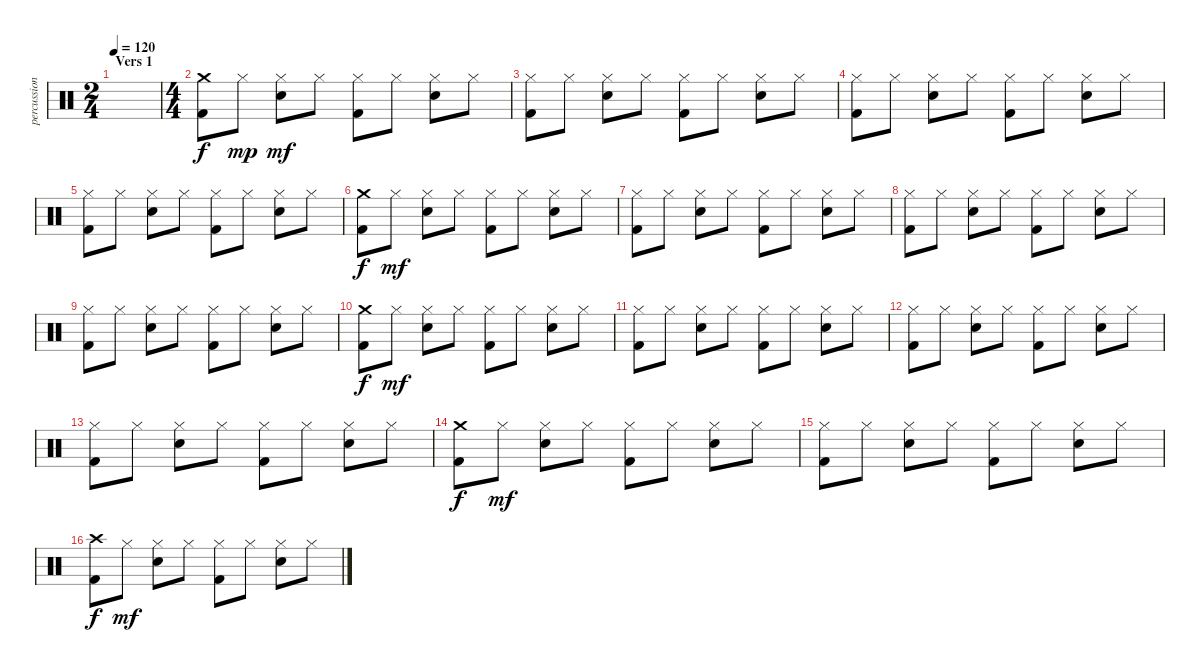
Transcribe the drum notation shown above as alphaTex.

\track ("percussion" "percussion") {instrument percussion}
\staff {score}
\articulation defaults
\ts (2 4)
\section ("" "Vers 1")
\tempo 120
\clef neutral
\ks c
|
\ts (4 4)
("Crash medium (hit)" "Kick (hit) 2").8 "Hi-Hat (closed)".8{dy mp} ("Hi-Hat (closed)" "Electric Snare (hit)").8{dy mf} "Hi-Hat (closed)".8 ("Hi-Hat (closed)" "Kick (hit) 2").8 "Hi-Hat (closed)".8 ("Hi-Hat (closed)" "Electric Snare (hit)").8 "Hi-Hat (closed)".8 |
("Hi-Hat (closed)" "Kick (hit) 2").8 "Hi-Hat (closed)".8 ("Hi-Hat (closed)" "Electric Snare (hit)").8 "Hi-Hat (closed)".8 ("Hi-Hat (closed)" "Kick (hit) 2").8 "Hi-Hat (closed)".8 ("Hi-Hat (closed)" "Electric Snare (hit)").8 "Hi-Hat (closed)".8 |
("Hi-Hat (closed)" "Kick (hit) 2").8 "Hi-Hat (closed)".8 ("Hi-Hat (closed)" "Electric Snare (hit)").8 "Hi-Hat (closed)".8 ("Hi-Hat (closed)" "Kick (hit) 2").8 "Hi-Hat (closed)".8 ("Hi-Hat (closed)" "Electric Snare (hit)").8 "Hi-Hat (closed)".8 |
("Hi-Hat (closed)" "Kick (hit) 2").8 "Hi-Hat (closed)".8 ("Hi-Hat (closed)" "Electric Snare (hit)").8 "Hi-Hat (closed)".8 ("Hi-Hat (closed)" "Kick (hit) 2").8 "Hi-Hat (closed)".8 ("Hi-Hat (closed)" "Electric Snare (hit)").8 "Hi-Hat (closed)".8 |
("Crash medium (hit)" "Kick (hit) 2").8{dy f} "Hi-Hat (closed)".8{dy mf} ("Hi-Hat (closed)" "Electric Snare (hit)").8 "Hi-Hat (closed)".8 ("Hi-Hat (closed)" "Kick (hit) 2").8 "Hi-Hat (closed)".8 ("Hi-Hat (closed)" "Electric Snare (hit)").8 "Hi-Hat (closed)".8 |
("Hi-Hat (closed)" "Kick (hit) 2").8 "Hi-Hat (closed)".8 ("Hi-Hat (closed)" "Electric Snare (hit)").8 "Hi-Hat (closed)".8 ("Hi-Hat (closed)" "Kick (hit) 2").8 "Hi-Hat (closed)".8 ("Hi-Hat (closed)" "Electric Snare (hit)").8 "Hi-Hat (closed)".8 |
("Hi-Hat (closed)" "Kick (hit) 2").8 "Hi-Hat (closed)".8 ("Hi-Hat (closed)" "Electric Snare (hit)").8 "Hi-Hat (closed)".8 ("Hi-Hat (closed)" "Kick (hit) 2").8 "Hi-Hat (closed)".8 ("Hi-Hat (closed)" "Electric Snare (hit)").8 "Hi-Hat (closed)".8 |
("Hi-Hat (closed)" "Kick (hit) 2").8 "Hi-Hat (closed)".8 ("Hi-Hat (closed)" "Electric Snare (hit)").8 "Hi-Hat (closed)".8 ("Hi-Hat (closed)" "Kick (hit) 2").8 "Hi-Hat (closed)".8 ("Hi-Hat (closed)" "Electric Snare (hit)").8 "Hi-Hat (closed)".8 |
("Crash medium (hit)" "Kick (hit) 2").8{dy f} "Hi-Hat (closed)".8{dy mf} ("Hi-Hat (closed)" "Electric Snare (hit)").8 "Hi-Hat (closed)".8 ("Hi-Hat (closed)" "Kick (hit) 2").8 "Hi-Hat (closed)".8 ("Hi-Hat (closed)" "Electric Snare (hit)").8 "Hi-Hat (closed)".8 |
("Hi-Hat (closed)" "Kick (hit) 2").8 "Hi-Hat (closed)".8 ("Hi-Hat (closed)" "Electric Snare (hit)").8 "Hi-Hat (closed)".8 ("Hi-Hat (closed)" "Kick (hit) 2").8 "Hi-Hat (closed)".8 ("Hi-Hat (closed)" "Electric Snare (hit)").8 "Hi-Hat (closed)".8 |
("Hi-Hat (closed)" "Kick (hit) 2").8 "Hi-Hat (closed)".8 ("Hi-Hat (closed)" "Electric Snare (hit)").8 "Hi-Hat (closed)".8 ("Hi-Hat (closed)" "Kick (hit) 2").8 "Hi-Hat (closed)".8 ("Hi-Hat (closed)" "Electric Snare (hit)").8 "Hi-Hat (closed)".8 |
("Hi-Hat (closed)" "Kick (hit) 2").8 "Hi-Hat (closed)".8 ("Hi-Hat (closed)" "Electric Snare (hit)").8 "Hi-Hat (closed)".8 ("Hi-Hat (closed)" "Kick (hit) 2").8 "Hi-Hat (closed)".8 ("Hi-Hat (closed)" "Electric Snare (hit)").8 "Hi-Hat (closed)".8 |
("Crash medium (hit)" "Kick (hit) 2").8{dy f} "Hi-Hat (closed)".8{dy mf} ("Hi-Hat (closed)" "Electric Snare (hit)").8 "Hi-Hat (closed)".8 ("Hi-Hat (closed)" "Kick (hit) 2").8 "Hi-Hat (closed)".8 ("Hi-Hat (closed)" "Electric Snare (hit)").8 "Hi-Hat (closed)".8 |
("Hi-Hat (closed)" "Kick (hit) 2").8 "Hi-Hat (closed)".8 ("Hi-Hat (closed)" "Electric Snare (hit)").8 "Hi-Hat (closed)".8 ("Hi-Hat (closed)" "Kick (hit) 2").8 "Hi-Hat (closed)".8 ("Hi-Hat (closed)" "Electric Snare (hit)").8 "Hi-Hat (closed)".8 |
("Crash high (hit)" "Kick (hit) 2").8{dy f} "Hi-Hat (closed)".8{dy mf} ("Hi-Hat (closed)" "Electric Snare (hit)").8 "Hi-Hat (closed)".8 ("Hi-Hat (closed)" "Kick (hit) 2").8 "Hi-Hat (closed)".8 ("Hi-Hat (closed)" "Electric Snare (hit)").8 "Hi-Hat (closed)".8
